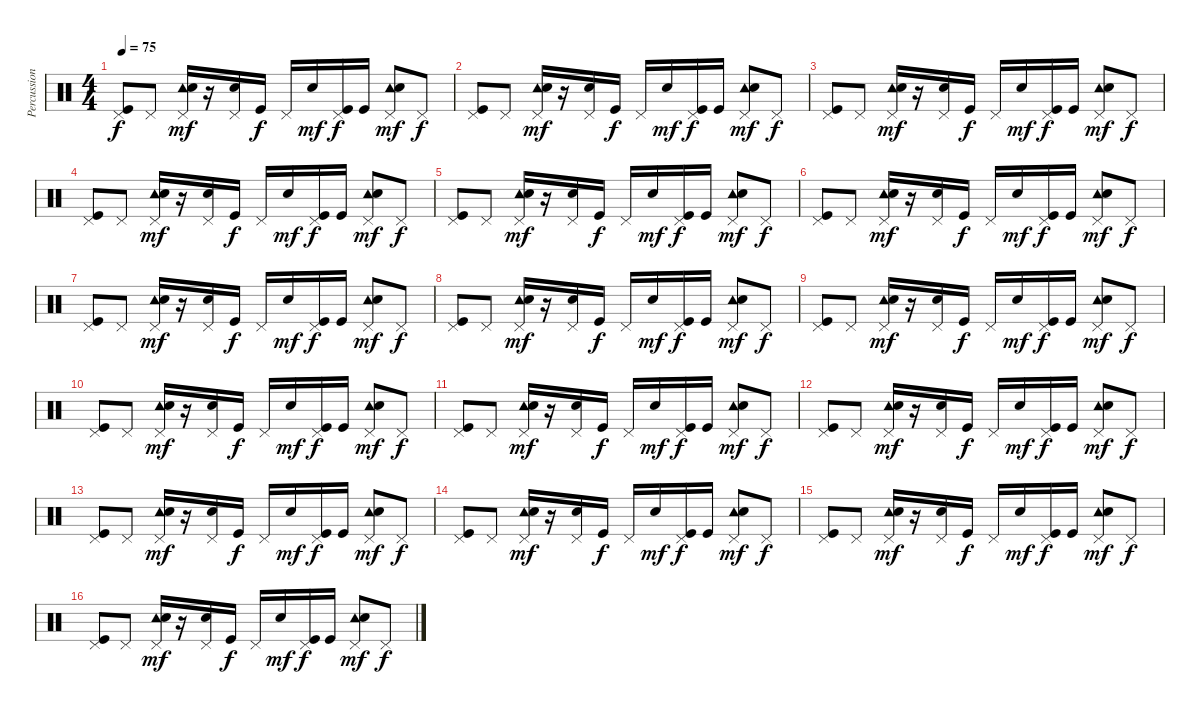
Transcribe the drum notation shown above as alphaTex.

\track ("Percussions" "Percussion") {instrument percussion}
\staff {score}
\articulation defaults
\ts (4 4)
\tempo 75
\clef neutral
\ks c
("Pedal Hi-Hat (hit)" "Kick (hit)").8{dy f} "Pedal Hi-Hat (hit)".8 ("Pedal Hi-Hat (hit)" "Tambourine (hit)" "Electric Snare (hit)").16{dy mf} r.16 ("Pedal Hi-Hat (hit)" "Electric Snare (hit)").16 "Kick (hit)".16{dy f} "Pedal Hi-Hat (hit)".16 "Electric Snare (hit)".16{dy mf} ("Pedal Hi-Hat (hit)" "Kick (hit)").16{dy f} "Kick (hit)".16 ("Pedal Hi-Hat (hit)" "Tambourine (hit)" "Electric Snare (hit)").8{dy mf} "Pedal Hi-Hat (hit)".8{dy f} |
("Pedal Hi-Hat (hit)" "Kick (hit)").8 "Pedal Hi-Hat (hit)".8 ("Pedal Hi-Hat (hit)" "Tambourine (hit)" "Electric Snare (hit)").16{dy mf} r.16 ("Pedal Hi-Hat (hit)" "Electric Snare (hit)").16 "Kick (hit)".16{dy f} "Pedal Hi-Hat (hit)".16 "Electric Snare (hit)".16{dy mf} ("Pedal Hi-Hat (hit)" "Kick (hit)").16{dy f} "Kick (hit)".16 ("Pedal Hi-Hat (hit)" "Tambourine (hit)" "Electric Snare (hit)").8{dy mf} "Pedal Hi-Hat (hit)".8{dy f} |
("Pedal Hi-Hat (hit)" "Kick (hit)").8 "Pedal Hi-Hat (hit)".8 ("Pedal Hi-Hat (hit)" "Tambourine (hit)" "Electric Snare (hit)").16{dy mf} r.16 ("Pedal Hi-Hat (hit)" "Electric Snare (hit)").16 "Kick (hit)".16{dy f} "Pedal Hi-Hat (hit)".16 "Electric Snare (hit)".16{dy mf} ("Pedal Hi-Hat (hit)" "Kick (hit)").16{dy f} "Kick (hit)".16 ("Pedal Hi-Hat (hit)" "Tambourine (hit)" "Electric Snare (hit)").8{dy mf} "Pedal Hi-Hat (hit)".8{dy f} |
("Pedal Hi-Hat (hit)" "Kick (hit)").8 "Pedal Hi-Hat (hit)".8 ("Pedal Hi-Hat (hit)" "Tambourine (hit)" "Electric Snare (hit)").16{dy mf} r.16 ("Pedal Hi-Hat (hit)" "Electric Snare (hit)").16 "Kick (hit)".16{dy f} "Pedal Hi-Hat (hit)".16 "Electric Snare (hit)".16{dy mf} ("Pedal Hi-Hat (hit)" "Kick (hit)").16{dy f} "Kick (hit)".16 ("Pedal Hi-Hat (hit)" "Tambourine (hit)" "Electric Snare (hit)").8{dy mf} "Pedal Hi-Hat (hit)".8{dy f} |
("Pedal Hi-Hat (hit)" "Kick (hit)").8 "Pedal Hi-Hat (hit)".8 ("Pedal Hi-Hat (hit)" "Tambourine (hit)" "Electric Snare (hit)").16{dy mf} r.16 ("Pedal Hi-Hat (hit)" "Electric Snare (hit)").16 "Kick (hit)".16{dy f} "Pedal Hi-Hat (hit)".16 "Electric Snare (hit)".16{dy mf} ("Pedal Hi-Hat (hit)" "Kick (hit)").16{dy f} "Kick (hit)".16 ("Pedal Hi-Hat (hit)" "Tambourine (hit)" "Electric Snare (hit)").8{dy mf} "Pedal Hi-Hat (hit)".8{dy f} |
("Pedal Hi-Hat (hit)" "Kick (hit)").8 "Pedal Hi-Hat (hit)".8 ("Pedal Hi-Hat (hit)" "Tambourine (hit)" "Electric Snare (hit)").16{dy mf} r.16 ("Pedal Hi-Hat (hit)" "Electric Snare (hit)").16 "Kick (hit)".16{dy f} "Pedal Hi-Hat (hit)".16 "Electric Snare (hit)".16{dy mf} ("Pedal Hi-Hat (hit)" "Kick (hit)").16{dy f} "Kick (hit)".16 ("Pedal Hi-Hat (hit)" "Tambourine (hit)" "Electric Snare (hit)").8{dy mf} "Pedal Hi-Hat (hit)".8{dy f} |
("Pedal Hi-Hat (hit)" "Kick (hit)").8 "Pedal Hi-Hat (hit)".8 ("Pedal Hi-Hat (hit)" "Tambourine (hit)" "Electric Snare (hit)").16{dy mf} r.16 ("Pedal Hi-Hat (hit)" "Electric Snare (hit)").16 "Kick (hit)".16{dy f} "Pedal Hi-Hat (hit)".16 "Electric Snare (hit)".16{dy mf} ("Pedal Hi-Hat (hit)" "Kick (hit)").16{dy f} "Kick (hit)".16 ("Pedal Hi-Hat (hit)" "Tambourine (hit)" "Electric Snare (hit)").8{dy mf} "Pedal Hi-Hat (hit)".8{dy f} |
("Pedal Hi-Hat (hit)" "Kick (hit)").8 "Pedal Hi-Hat (hit)".8 ("Pedal Hi-Hat (hit)" "Tambourine (hit)" "Electric Snare (hit)").16{dy mf} r.16 ("Pedal Hi-Hat (hit)" "Electric Snare (hit)").16 "Kick (hit)".16{dy f} "Pedal Hi-Hat (hit)".16 "Electric Snare (hit)".16{dy mf} ("Pedal Hi-Hat (hit)" "Kick (hit)").16{dy f} "Kick (hit)".16 ("Pedal Hi-Hat (hit)" "Tambourine (hit)" "Electric Snare (hit)").8{dy mf} "Pedal Hi-Hat (hit)".8{dy f} |
("Pedal Hi-Hat (hit)" "Kick (hit)").8 "Pedal Hi-Hat (hit)".8 ("Pedal Hi-Hat (hit)" "Tambourine (hit)" "Electric Snare (hit)").16{dy mf} r.16 ("Pedal Hi-Hat (hit)" "Electric Snare (hit)").16 "Kick (hit)".16{dy f} "Pedal Hi-Hat (hit)".16 "Electric Snare (hit)".16{dy mf} ("Pedal Hi-Hat (hit)" "Kick (hit)").16{dy f} "Kick (hit)".16 ("Pedal Hi-Hat (hit)" "Tambourine (hit)" "Electric Snare (hit)").8{dy mf} "Pedal Hi-Hat (hit)".8{dy f} |
("Pedal Hi-Hat (hit)" "Kick (hit)").8 "Pedal Hi-Hat (hit)".8 ("Pedal Hi-Hat (hit)" "Tambourine (hit)" "Electric Snare (hit)").16{dy mf} r.16 ("Pedal Hi-Hat (hit)" "Electric Snare (hit)").16 "Kick (hit)".16{dy f} "Pedal Hi-Hat (hit)".16 "Electric Snare (hit)".16{dy mf} ("Pedal Hi-Hat (hit)" "Kick (hit)").16{dy f} "Kick (hit)".16 ("Pedal Hi-Hat (hit)" "Tambourine (hit)" "Electric Snare (hit)").8{dy mf} "Pedal Hi-Hat (hit)".8{dy f} |
("Pedal Hi-Hat (hit)" "Kick (hit)").8 "Pedal Hi-Hat (hit)".8 ("Pedal Hi-Hat (hit)" "Tambourine (hit)" "Electric Snare (hit)").16{dy mf} r.16 ("Pedal Hi-Hat (hit)" "Electric Snare (hit)").16 "Kick (hit)".16{dy f} "Pedal Hi-Hat (hit)".16 "Electric Snare (hit)".16{dy mf} ("Pedal Hi-Hat (hit)" "Kick (hit)").16{dy f} "Kick (hit)".16 ("Pedal Hi-Hat (hit)" "Tambourine (hit)" "Electric Snare (hit)").8{dy mf} "Pedal Hi-Hat (hit)".8{dy f} |
("Pedal Hi-Hat (hit)" "Kick (hit)").8 "Pedal Hi-Hat (hit)".8 ("Pedal Hi-Hat (hit)" "Tambourine (hit)" "Electric Snare (hit)").16{dy mf} r.16 ("Pedal Hi-Hat (hit)" "Electric Snare (hit)").16 "Kick (hit)".16{dy f} "Pedal Hi-Hat (hit)".16 "Electric Snare (hit)".16{dy mf} ("Pedal Hi-Hat (hit)" "Kick (hit)").16{dy f} "Kick (hit)".16 ("Pedal Hi-Hat (hit)" "Tambourine (hit)" "Electric Snare (hit)").8{dy mf} "Pedal Hi-Hat (hit)".8{dy f} |
("Pedal Hi-Hat (hit)" "Kick (hit)").8 "Pedal Hi-Hat (hit)".8 ("Pedal Hi-Hat (hit)" "Tambourine (hit)" "Electric Snare (hit)").16{dy mf} r.16 ("Pedal Hi-Hat (hit)" "Electric Snare (hit)").16 "Kick (hit)".16{dy f} "Pedal Hi-Hat (hit)".16 "Electric Snare (hit)".16{dy mf} ("Pedal Hi-Hat (hit)" "Kick (hit)").16{dy f} "Kick (hit)".16 ("Pedal Hi-Hat (hit)" "Tambourine (hit)" "Electric Snare (hit)").8{dy mf} "Pedal Hi-Hat (hit)".8{dy f} |
("Pedal Hi-Hat (hit)" "Kick (hit)").8 "Pedal Hi-Hat (hit)".8 ("Pedal Hi-Hat (hit)" "Tambourine (hit)" "Electric Snare (hit)").16{dy mf} r.16 ("Pedal Hi-Hat (hit)" "Electric Snare (hit)").16 "Kick (hit)".16{dy f} "Pedal Hi-Hat (hit)".16 "Electric Snare (hit)".16{dy mf} ("Pedal Hi-Hat (hit)" "Kick (hit)").16{dy f} "Kick (hit)".16 ("Pedal Hi-Hat (hit)" "Tambourine (hit)" "Electric Snare (hit)").8{dy mf} "Pedal Hi-Hat (hit)".8{dy f} |
("Pedal Hi-Hat (hit)" "Kick (hit)").8 "Pedal Hi-Hat (hit)".8 ("Pedal Hi-Hat (hit)" "Tambourine (hit)" "Electric Snare (hit)").16{dy mf} r.16 ("Pedal Hi-Hat (hit)" "Electric Snare (hit)").16 "Kick (hit)".16{dy f} "Pedal Hi-Hat (hit)".16 "Electric Snare (hit)".16{dy mf} ("Pedal Hi-Hat (hit)" "Kick (hit)").16{dy f} "Kick (hit)".16 ("Pedal Hi-Hat (hit)" "Tambourine (hit)" "Electric Snare (hit)").8{dy mf} "Pedal Hi-Hat (hit)".8{dy f} |
("Pedal Hi-Hat (hit)" "Kick (hit)").8 "Pedal Hi-Hat (hit)".8 ("Pedal Hi-Hat (hit)" "Tambourine (hit)" "Electric Snare (hit)").16{dy mf} r.16 ("Pedal Hi-Hat (hit)" "Electric Snare (hit)").16 "Kick (hit)".16{dy f} "Pedal Hi-Hat (hit)".16 "Electric Snare (hit)".16{dy mf} ("Pedal Hi-Hat (hit)" "Kick (hit)").16{dy f} "Kick (hit)".16 ("Pedal Hi-Hat (hit)" "Tambourine (hit)" "Electric Snare (hit)").8{dy mf} "Pedal Hi-Hat (hit)".8{dy f}
